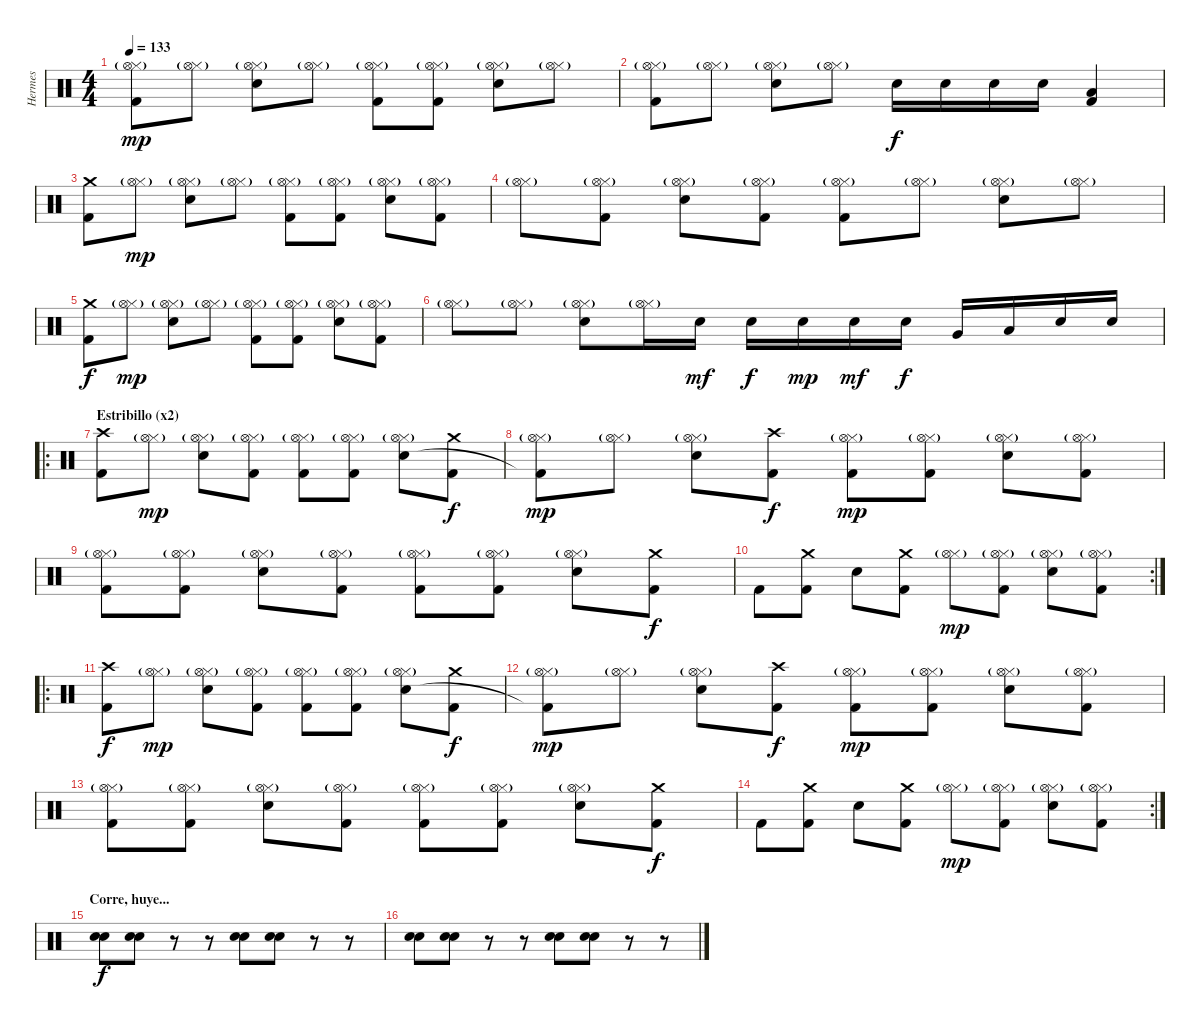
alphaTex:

\track ("Hermes" "Hermes") {instrument percussion}
\staff {score}
\articulation defaults
\ts (4 4)
\tempo 133
\clef neutral
\ks c
("Hi-Hat (closed)" "Hi-Hat (open)"{g} "Kick (hit) 2").8{dy mp} ("Hi-Hat (closed)" "Hi-Hat (open)"{g}).8 ("Hi-Hat (closed)" "Hi-Hat (open)"{g} "Snare (hit) 2").8 ("Hi-Hat (closed)" "Hi-Hat (open)"{g}).8 ("Hi-Hat (closed)" "Hi-Hat (open)"{g} "Kick (hit) 2").8 ("Hi-Hat (closed)" "Hi-Hat (open)"{g} "Kick (hit) 2").8 ("Hi-Hat (closed)" "Hi-Hat (open)"{g} "Snare (hit) 2").8 ("Hi-Hat (closed)" "Hi-Hat (open)"{g}).8 |
("Hi-Hat (closed)" "Hi-Hat (open)"{g} "Kick (hit) 2").8 ("Hi-Hat (closed)" "Hi-Hat (open)"{g}).8 ("Hi-Hat (closed)" "Hi-Hat (open)"{g} "Snare (hit) 2").8 ("Hi-Hat (closed)" "Hi-Hat (open)"{g}).8 "Snare (hit) 2".16{dy f} "Snare (hit) 2".16 "Snare (hit) 2".16 "Snare (hit) 2".16 ("Low Floor Tom (hit)" "Kick (hit) 2").4 |
("Crash medium (hit)" "Kick (hit) 2").8 ("Hi-Hat (closed)" "Hi-Hat (open)"{g}).8{dy mp} ("Hi-Hat (closed)" "Hi-Hat (open)"{g} "Snare (hit) 2").8 ("Hi-Hat (closed)" "Hi-Hat (open)"{g}).8 ("Hi-Hat (closed)" "Hi-Hat (open)"{g} "Kick (hit) 2").8 ("Hi-Hat (closed)" "Hi-Hat (open)"{g} "Kick (hit) 2").8 ("Hi-Hat (closed)" "Hi-Hat (open)"{g} "Snare (hit) 2").8 ("Hi-Hat (closed)" "Hi-Hat (open)"{g} "Kick (hit) 2").8 |
("Hi-Hat (closed)" "Hi-Hat (open)"{g}).8 ("Hi-Hat (closed)" "Hi-Hat (open)"{g} "Kick (hit) 2").8 ("Hi-Hat (closed)" "Hi-Hat (open)"{g} "Snare (hit) 2").8 ("Hi-Hat (closed)" "Hi-Hat (open)"{g} "Kick (hit) 2").8 ("Hi-Hat (closed)" "Hi-Hat (open)"{g} "Kick (hit) 2").8 ("Hi-Hat (closed)" "Hi-Hat (open)"{g}).8 ("Hi-Hat (closed)" "Hi-Hat (open)"{g} "Snare (hit) 2").8 ("Hi-Hat (closed)" "Hi-Hat (open)"{g}).8 |
("Crash medium (hit)" "Kick (hit) 2").8{dy f} ("Hi-Hat (closed)" "Hi-Hat (open)"{g}).8{dy mp} ("Hi-Hat (closed)" "Hi-Hat (open)"{g} "Snare (hit) 2").8 ("Hi-Hat (closed)" "Hi-Hat (open)"{g}).8 ("Hi-Hat (closed)" "Hi-Hat (open)"{g} "Kick (hit) 2").8 ("Hi-Hat (closed)" "Hi-Hat (open)"{g} "Kick (hit) 2").8 ("Hi-Hat (closed)" "Hi-Hat (open)"{g} "Snare (hit) 2").8 ("Hi-Hat (closed)" "Hi-Hat (open)"{g} "Kick (hit) 2").8 |
("Hi-Hat (closed)" "Hi-Hat (open)"{g}).8 ("Hi-Hat (closed)" "Hi-Hat (open)"{g}).8 ("Hi-Hat (closed)" "Hi-Hat (open)"{g} "Snare (hit) 2").8 ("Hi-Hat (closed)" "Hi-Hat (open)"{g}).16 "Snare (hit) 2".16{dy mf} "Snare (hit) 2".16{dy f} "Snare (hit) 2".16{dy mp} "Snare (hit) 2".16{dy mf} "Snare (hit) 2".16{dy f} "Very Low Tom (hit)".16 "Low Floor Tom (hit)".16 "Snare (hit) 2".16 "Snare (hit) 2".16 |
\ro
\section ("" "Estribillo (x2)")
("Crash high (hit)" "Kick (hit) 2").8 ("Hi-Hat (closed)" "Hi-Hat (open)"{g}).8{dy mp} ("Hi-Hat (closed)" "Hi-Hat (open)"{g} "Snare (hit) 2").8 ("Hi-Hat (closed)" "Hi-Hat (open)"{g} "Kick (hit) 2").8 ("Hi-Hat (closed)" "Hi-Hat (open)"{g} "Kick (hit) 2").8 ("Hi-Hat (closed)" "Hi-Hat (open)"{g} "Kick (hit) 2").8 ("Hi-Hat (closed)" "Hi-Hat (open)"{g} "Snare (hit) 2").8 ("Crash medium (hit)" "Kick (hit) 2").8{dy f} |
("Hi-Hat (closed)" "Hi-Hat (open)"{g} "Kick (hit) 2"{t}).8{dy mp} ("Hi-Hat (closed)" "Hi-Hat (open)"{g}).8 ("Hi-Hat (closed)" "Hi-Hat (open)"{g} "Snare (hit) 2").8 ("Crash high (hit)" "Kick (hit) 2").8{dy f} ("Hi-Hat (closed)" "Hi-Hat (open)"{g} "Kick (hit) 2").8{dy mp} ("Hi-Hat (closed)" "Hi-Hat (open)"{g} "Kick (hit) 2").8 ("Hi-Hat (closed)" "Hi-Hat (open)"{g} "Snare (hit) 2").8 ("Hi-Hat (closed)" "Hi-Hat (open)"{g} "Kick (hit) 2").8 |
("Hi-Hat (closed)" "Hi-Hat (open)"{g} "Kick (hit) 2").8 ("Hi-Hat (closed)" "Hi-Hat (open)"{g} "Kick (hit) 2").8 ("Hi-Hat (closed)" "Hi-Hat (open)"{g} "Snare (hit) 2").8 ("Hi-Hat (closed)" "Hi-Hat (open)"{g} "Kick (hit) 2").8 ("Hi-Hat (closed)" "Hi-Hat (open)"{g} "Kick (hit) 2").8 ("Hi-Hat (closed)" "Hi-Hat (open)"{g} "Kick (hit) 2").8 ("Hi-Hat (closed)" "Hi-Hat (open)"{g} "Snare (hit) 2").8 ("Crash medium (hit)" "Kick (hit) 2").8{dy f} |
\rc 2 "Kick (hit) 2".8
("Crash medium (hit)" "Kick (hit) 2").8 "Snare (hit) 2".8 ("Crash medium (hit)" "Kick (hit) 2").8 ("Hi-Hat (closed)" "Hi-Hat (open)"{g}).8{dy mp} ("Hi-Hat (closed)" "Hi-Hat (open)"{g} "Kick (hit) 2").8 ("Hi-Hat (closed)" "Hi-Hat (open)"{g} "Snare (hit) 2").8 ("Hi-Hat (closed)" "Hi-Hat (open)"{g} "Kick (hit) 2").8 |
\ro
("Crash high (hit)" "Kick (hit) 2").8{dy f} ("Hi-Hat (closed)" "Hi-Hat (open)"{g}).8{dy mp} ("Hi-Hat (closed)" "Hi-Hat (open)"{g} "Snare (hit) 2").8 ("Hi-Hat (closed)" "Hi-Hat (open)"{g} "Kick (hit) 2").8 ("Hi-Hat (closed)" "Hi-Hat (open)"{g} "Kick (hit) 2").8 ("Hi-Hat (closed)" "Hi-Hat (open)"{g} "Kick (hit) 2").8 ("Hi-Hat (closed)" "Hi-Hat (open)"{g} "Snare (hit) 2").8 ("Crash medium (hit)" "Kick (hit) 2").8{dy f} |
("Hi-Hat (closed)" "Hi-Hat (open)"{g} "Kick (hit) 2"{t}).8{dy mp} ("Hi-Hat (closed)" "Hi-Hat (open)"{g}).8 ("Hi-Hat (closed)" "Hi-Hat (open)"{g} "Snare (hit) 2").8 ("Crash high (hit)" "Kick (hit) 2").8{dy f} ("Hi-Hat (closed)" "Hi-Hat (open)"{g} "Kick (hit) 2").8{dy mp} ("Hi-Hat (closed)" "Hi-Hat (open)"{g} "Kick (hit) 2").8 ("Hi-Hat (closed)" "Hi-Hat (open)"{g} "Snare (hit) 2").8 ("Hi-Hat (closed)" "Hi-Hat (open)"{g} "Kick (hit) 2").8 |
("Hi-Hat (closed)" "Hi-Hat (open)"{g} "Kick (hit) 2").8 ("Hi-Hat (closed)" "Hi-Hat (open)"{g} "Kick (hit) 2").8 ("Hi-Hat (closed)" "Hi-Hat (open)"{g} "Snare (hit) 2").8 ("Hi-Hat (closed)" "Hi-Hat (open)"{g} "Kick (hit) 2").8 ("Hi-Hat (closed)" "Hi-Hat (open)"{g} "Kick (hit) 2").8 ("Hi-Hat (closed)" "Hi-Hat (open)"{g} "Kick (hit) 2").8 ("Hi-Hat (closed)" "Hi-Hat (open)"{g} "Snare (hit) 2").8 ("Crash medium (hit)" "Kick (hit) 2").8{dy f} |
\rc 2 "Kick (hit) 2".8
("Crash medium (hit)" "Kick (hit) 2").8 "Snare (hit) 2".8 ("Crash medium (hit)" "Kick (hit) 2").8 ("Hi-Hat (closed)" "Hi-Hat (open)"{g}).8{dy mp} ("Hi-Hat (closed)" "Hi-Hat (open)"{g} "Kick (hit) 2").8 ("Hi-Hat (closed)" "Hi-Hat (open)"{g} "Snare (hit) 2").8 ("Hi-Hat (closed)" "Hi-Hat (open)"{g} "Kick (hit) 2").8 |
\section ("" "Corre, huye...")
("Snare (hit) 2" "Snare (hit) 2").8{dy f} ("Snare (hit) 2" "Snare (hit) 2").8 r.8 r.8 ("Snare (hit) 2" "Snare (hit) 2").8 ("Snare (hit) 2" "Snare (hit) 2").8 r.8 r.8 |
("Snare (hit) 2" "Snare (hit) 2").8 ("Snare (hit) 2" "Snare (hit) 2").8 r.8 r.8 ("Snare (hit) 2" "Snare (hit) 2").8 ("Snare (hit) 2" "Snare (hit) 2").8 r.8 r.8
